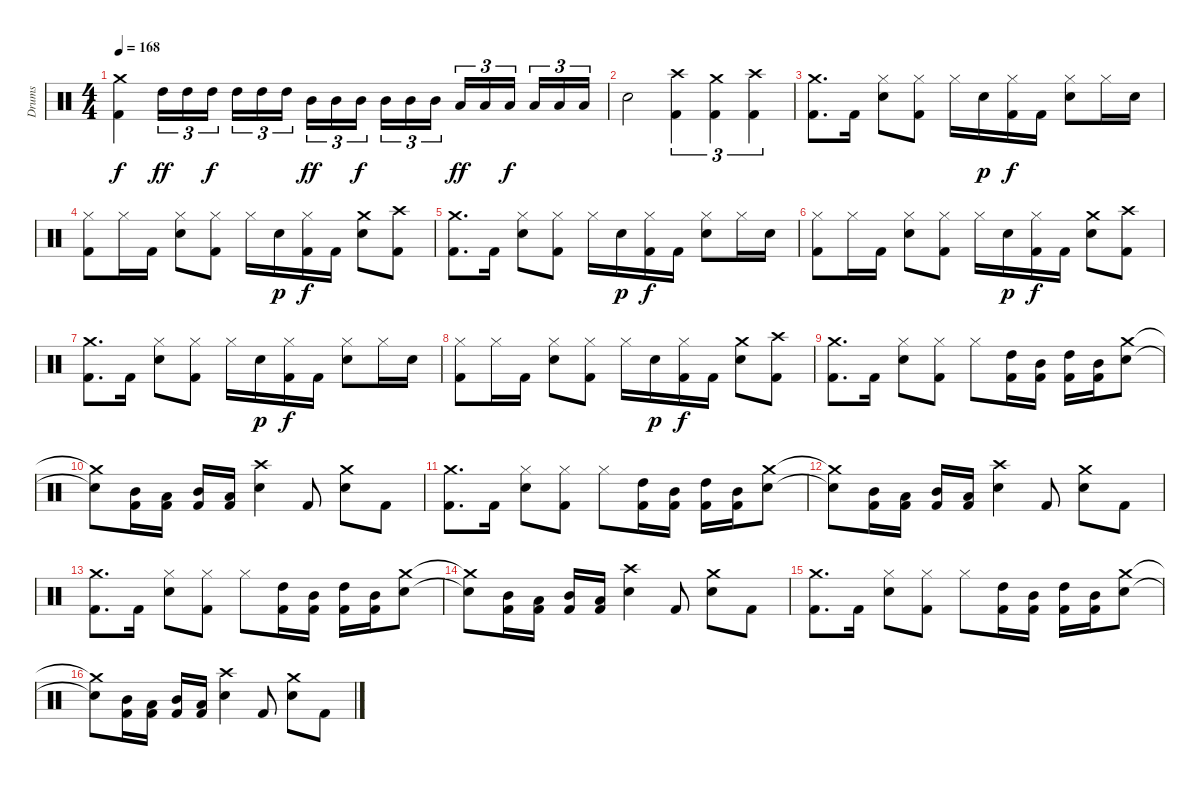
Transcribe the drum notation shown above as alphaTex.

\bracketExtendMode groupsimilarinstruments
\track ("Drumkit" "Drums") {solo instrument percussion}
\staff {score}
\articulation defaults
\ts (4 4)
\tempo 168
\clef neutral
\ks c
("Crash medium (hit)" "Kick (hit) 2").4{dy f} "High Tom (hit)".16{tu (3 2) dy ff} "High Tom (hit)".16{tu (3 2)} "High Tom (hit)".16{tu (3 2) dy f} "High Tom (hit)".16{tu (3 2)} "High Tom (hit)".16{tu (3 2)} "High Tom (hit)".16{tu (3 2)} "Mid Tom (hit)".16{tu (3 2) dy ff} "Mid Tom (hit)".16{tu (3 2)} "Mid Tom (hit)".16{tu (3 2) dy f} "Mid Tom (hit)".16{tu (3 2)} "Mid Tom (hit)".16{tu (3 2)} "Mid Tom (hit)".16{tu (3 2)} "Low Tom (hit)".16{tu (3 2) dy ff} "Low Tom (hit)".16{tu (3 2)} "Low Tom (hit)".16{tu (3 2) dy f} "Low Tom (hit)".16{tu (3 2)} "Low Tom (hit)".16{tu (3 2)} "Low Tom (hit)".16{tu (3 2)} |
"Snare (hit) 2".2 ("Crash high (hit)" "Kick (hit) 2").4{tu (3 2)} ("Crash medium (hit)" "Kick (hit) 2").4{tu (3 2)} ("Crash high (hit)" "Kick (hit) 2").4{tu (3 2)} |
("Crash medium (hit)" "Kick (hit) 2").8{d} "Kick (hit) 2".16 ("Hi-Hat (closed)" "Snare (hit) 2").8 ("Hi-Hat (closed)" "Kick (hit) 2").8 "Hi-Hat (closed)".16 "Snare (hit) 2".16{dy p} ("Hi-Hat (closed)" "Kick (hit) 2").16{dy f} "Kick (hit) 2".16 ("Hi-Hat (closed)" "Snare (hit) 2").8 "Hi-Hat (closed)".16 "Snare (hit) 2".16 |
("Hi-Hat (closed)" "Kick (hit) 2").8 "Hi-Hat (closed)".16 "Kick (hit) 2".16 ("Hi-Hat (closed)" "Snare (hit) 2").8 ("Hi-Hat (closed)" "Kick (hit) 2").8 "Hi-Hat (closed)".16 "Snare (hit) 2".16{dy p} ("Hi-Hat (closed)" "Kick (hit) 2").16{dy f} "Kick (hit) 2".16 ("Crash medium (hit)" "Snare (hit) 2").8 ("Crash high (hit)" "Kick (hit) 2").8 |
("Crash medium (hit)" "Kick (hit) 2").8{d} "Kick (hit) 2".16 ("Hi-Hat (closed)" "Snare (hit) 2").8 ("Hi-Hat (closed)" "Kick (hit) 2").8 "Hi-Hat (closed)".16 "Snare (hit) 2".16{dy p} ("Hi-Hat (closed)" "Kick (hit) 2").16{dy f} "Kick (hit) 2".16 ("Hi-Hat (closed)" "Snare (hit) 2").8 "Hi-Hat (closed)".16 "Snare (hit) 2".16 |
("Hi-Hat (closed)" "Kick (hit) 2").8 "Hi-Hat (closed)".16 "Kick (hit) 2".16 ("Hi-Hat (closed)" "Snare (hit) 2").8 ("Hi-Hat (closed)" "Kick (hit) 2").8 "Hi-Hat (closed)".16 "Snare (hit) 2".16{dy p} ("Hi-Hat (closed)" "Kick (hit) 2").16{dy f} "Kick (hit) 2".16 ("Crash medium (hit)" "Snare (hit) 2").8 ("Crash high (hit)" "Kick (hit) 2").8 |
("Crash medium (hit)" "Kick (hit) 2").8{d} "Kick (hit) 2".16 ("Hi-Hat (closed)" "Snare (hit) 2").8 ("Hi-Hat (closed)" "Kick (hit) 2").8 "Hi-Hat (closed)".16 "Snare (hit) 2".16{dy p} ("Hi-Hat (closed)" "Kick (hit) 2").16{dy f} "Kick (hit) 2".16 ("Hi-Hat (closed)" "Snare (hit) 2").8 "Hi-Hat (closed)".16 "Snare (hit) 2".16 |
("Hi-Hat (closed)" "Kick (hit) 2").8 "Hi-Hat (closed)".16 "Kick (hit) 2".16 ("Hi-Hat (closed)" "Snare (hit) 2").8 ("Hi-Hat (closed)" "Kick (hit) 2").8 "Hi-Hat (closed)".16 "Snare (hit) 2".16{dy p} ("Hi-Hat (closed)" "Kick (hit) 2").16{dy f} "Kick (hit) 2".16 ("Crash medium (hit)" "Snare (hit) 2").8 ("Crash high (hit)" "Kick (hit) 2").8 |
("Crash medium (hit)" "Kick (hit) 2").8{d} "Kick (hit) 2".16 ("Hi-Hat (closed)" "Snare (hit) 2").8 ("Hi-Hat (closed)" "Kick (hit) 2").8 "Hi-Hat (closed)".8 ("High Tom (hit)" "Kick (hit) 2").16 ("Mid Tom (hit)" "Kick (hit) 2").16 ("High Tom (hit)" "Kick (hit) 2").16 ("Mid Tom (hit)" "Kick (hit) 2").16 ("Crash medium (hit)" "Snare (hit) 2").8 |
("Crash medium (hit)"{t} "Snare (hit) 2"{t}).8 ("Mid Tom (hit)" "Kick (hit) 2").16 ("Low Tom (hit)" "Kick (hit) 2").16 ("Mid Tom (hit)" "Kick (hit) 2").16 ("Low Tom (hit)" "Kick (hit) 2").16 ("Crash high (hit)" "Snare (hit) 2").4 "Kick (hit) 2".8 ("Crash medium (hit)" "Snare (hit) 2").8 "Kick (hit) 2".8 |
("Crash medium (hit)" "Kick (hit) 2").8{d} "Kick (hit) 2".16 ("Hi-Hat (closed)" "Snare (hit) 2").8 ("Hi-Hat (closed)" "Kick (hit) 2").8 "Hi-Hat (closed)".8 ("High Tom (hit)" "Kick (hit) 2").16 ("Mid Tom (hit)" "Kick (hit) 2").16 ("High Tom (hit)" "Kick (hit) 2").16 ("Mid Tom (hit)" "Kick (hit) 2").16 ("Crash medium (hit)" "Snare (hit) 2").8 |
("Crash medium (hit)"{t} "Snare (hit) 2"{t}).8 ("Mid Tom (hit)" "Kick (hit) 2").16 ("Low Tom (hit)" "Kick (hit) 2").16 ("Mid Tom (hit)" "Kick (hit) 2").16 ("Low Tom (hit)" "Kick (hit) 2").16 ("Crash high (hit)" "Snare (hit) 2").4 "Kick (hit) 2".8 ("Crash medium (hit)" "Snare (hit) 2").8 "Kick (hit) 2".8 |
("Crash medium (hit)" "Kick (hit) 2").8{d} "Kick (hit) 2".16 ("Hi-Hat (closed)" "Snare (hit) 2").8 ("Hi-Hat (closed)" "Kick (hit) 2").8 "Hi-Hat (closed)".8 ("High Tom (hit)" "Kick (hit) 2").16 ("Mid Tom (hit)" "Kick (hit) 2").16 ("High Tom (hit)" "Kick (hit) 2").16 ("Mid Tom (hit)" "Kick (hit) 2").16 ("Crash medium (hit)" "Snare (hit) 2").8 |
("Crash medium (hit)"{t} "Snare (hit) 2"{t}).8 ("Mid Tom (hit)" "Kick (hit) 2").16 ("Low Tom (hit)" "Kick (hit) 2").16 ("Mid Tom (hit)" "Kick (hit) 2").16 ("Low Tom (hit)" "Kick (hit) 2").16 ("Crash high (hit)" "Snare (hit) 2").4 "Kick (hit) 2".8 ("Crash medium (hit)" "Snare (hit) 2").8 "Kick (hit) 2".8 |
("Crash medium (hit)" "Kick (hit) 2").8{d} "Kick (hit) 2".16 ("Hi-Hat (closed)" "Snare (hit) 2").8 ("Hi-Hat (closed)" "Kick (hit) 2").8 "Hi-Hat (closed)".8 ("High Tom (hit)" "Kick (hit) 2").16 ("Mid Tom (hit)" "Kick (hit) 2").16 ("High Tom (hit)" "Kick (hit) 2").16 ("Mid Tom (hit)" "Kick (hit) 2").16 ("Crash medium (hit)" "Snare (hit) 2").8 |
("Crash medium (hit)"{t} "Snare (hit) 2"{t}).8 ("Mid Tom (hit)" "Kick (hit) 2").16 ("Low Tom (hit)" "Kick (hit) 2").16 ("Mid Tom (hit)" "Kick (hit) 2").16 ("Low Tom (hit)" "Kick (hit) 2").16 ("Crash high (hit)" "Snare (hit) 2").4 "Kick (hit) 2".8 ("Crash medium (hit)" "Snare (hit) 2").8 "Kick (hit) 2".8
